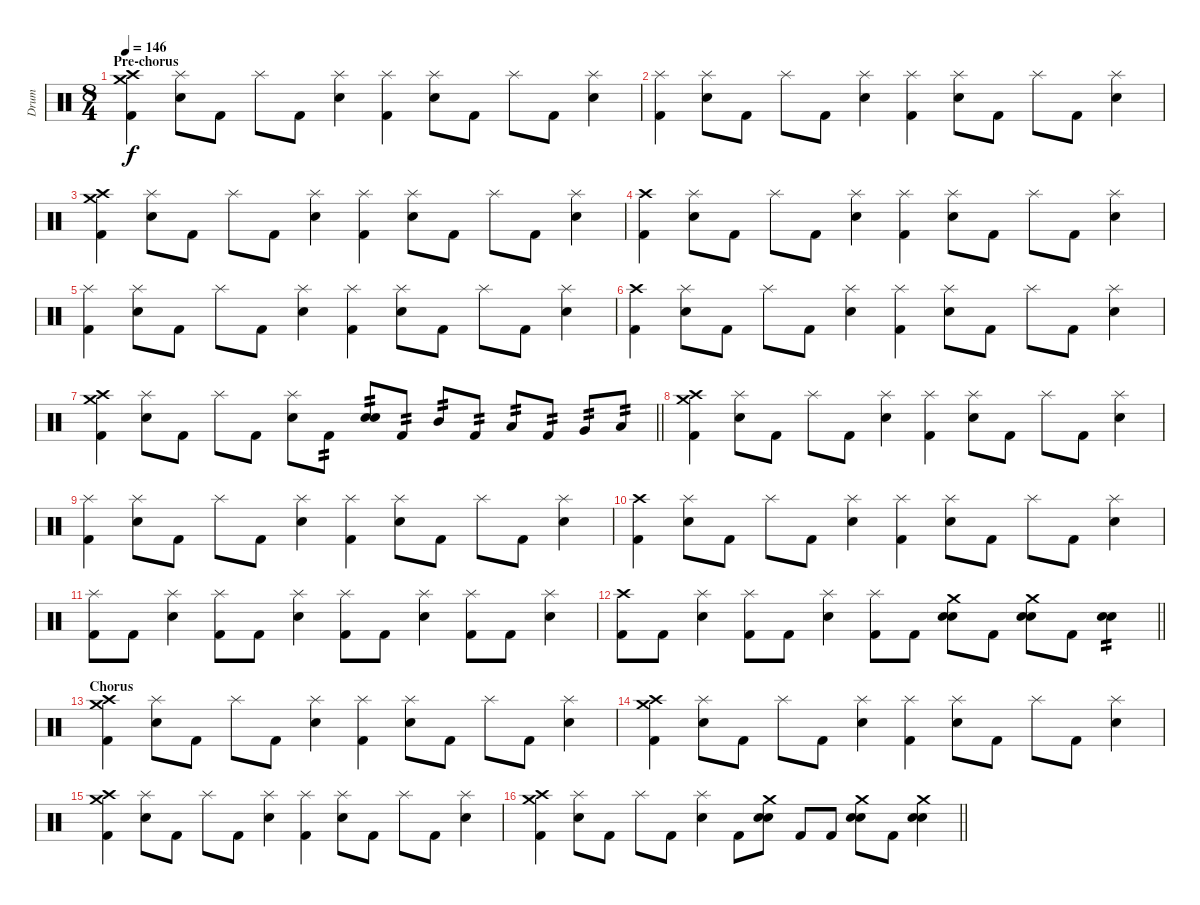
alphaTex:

\track ("Drum" "Drum") {instrument percussion}
\staff {score}
\articulation defaults
\ts (8 4)
\section ("" "Pre-chorus")
\tempo 146
\clef neutral
\ks c
("Kick (hit) 2" "Crash high (hit)" "Crash medium (hit)").4{dy f} ("Splash (hit)" "Electric Snare (hit)").8 "Kick (hit) 2".8 "Splash (hit)".8 "Kick (hit) 2".8 ("Splash (hit)" "Electric Snare (hit)").4 ("Splash (hit)" "Kick (hit) 2").4 ("Splash (hit)" "Electric Snare (hit)").8 "Kick (hit) 2".8 "Splash (hit)".8 "Kick (hit) 2".8 ("Splash (hit)" "Electric Snare (hit)").4 |
("Splash (hit)" "Kick (hit) 2").4 ("Splash (hit)" "Electric Snare (hit)").8 "Kick (hit) 2".8 "Splash (hit)".8 "Kick (hit) 2".8 ("Splash (hit)" "Electric Snare (hit)").4 ("Splash (hit)" "Kick (hit) 2").4 ("Splash (hit)" "Electric Snare (hit)").8 "Kick (hit) 2".8 "Splash (hit)".8 "Kick (hit) 2".8 ("Splash (hit)" "Electric Snare (hit)").4 |
("Kick (hit) 2" "Crash high (hit)" "Crash medium (hit)").4 ("Splash (hit)" "Electric Snare (hit)").8 "Kick (hit) 2".8 "Splash (hit)".8 "Kick (hit) 2".8 ("Splash (hit)" "Electric Snare (hit)").4 ("Splash (hit)" "Kick (hit) 2").4 ("Splash (hit)" "Electric Snare (hit)").8 "Kick (hit) 2".8 "Splash (hit)".8 "Kick (hit) 2".8 ("Splash (hit)" "Electric Snare (hit)").4 |
("Kick (hit) 2" "Crash high (hit)").4 ("Splash (hit)" "Electric Snare (hit)").8 "Kick (hit) 2".8 "Splash (hit)".8 "Kick (hit) 2".8 ("Splash (hit)" "Electric Snare (hit)").4 ("Splash (hit)" "Kick (hit) 2").4 ("Splash (hit)" "Electric Snare (hit)").8 "Kick (hit) 2".8 "Splash (hit)".8 "Kick (hit) 2".8 ("Splash (hit)" "Electric Snare (hit)").4 |
("Splash (hit)" "Kick (hit) 2").4 ("Splash (hit)" "Electric Snare (hit)").8 "Kick (hit) 2".8 "Splash (hit)".8 "Kick (hit) 2".8 ("Splash (hit)" "Electric Snare (hit)").4 ("Splash (hit)" "Kick (hit) 2").4 ("Splash (hit)" "Electric Snare (hit)").8 "Kick (hit) 2".8 "Splash (hit)".8 "Kick (hit) 2".8 ("Splash (hit)" "Electric Snare (hit)").4 |
("Kick (hit) 2" "Crash high (hit)").4 ("Splash (hit)" "Electric Snare (hit)").8 "Kick (hit) 2".8 "Splash (hit)".8 "Kick (hit) 2".8 ("Splash (hit)" "Electric Snare (hit)").4 ("Splash (hit)" "Kick (hit) 2").4 ("Splash (hit)" "Electric Snare (hit)").8 "Kick (hit) 2".8 "Splash (hit)".8 "Kick (hit) 2".8 ("Splash (hit)" "Electric Snare (hit)").4 |
\barLineRight lightlight
("Kick (hit) 2" "Crash high (hit)" "Crash medium (hit)").4 ("Splash (hit)" "Electric Snare (hit)").8 "Kick (hit) 2".8 "Splash (hit)".8 "Kick (hit) 2".8 ("Splash (hit)" "Electric Snare (hit)").8 "Kick (hit) 2".8{tp 2} ("Electric Snare (hit)" "Electric Snare (hit)").8{tp 2} "Kick (hit) 2".8{tp 2} "Mid Tom (hit)".8{tp 2} "Kick (hit) 2".8{tp 2} "Low Tom (hit)".8{tp 2} "Kick (hit) 2".8{tp 2} "Very Low Tom (hit)".8{tp 2} "Low Floor Tom (hit)".8{tp 2} |
\section ("" "")
("Kick (hit) 2" "Crash high (hit)" "Crash medium (hit)").4 ("Splash (hit)" "Electric Snare (hit)").8 "Kick (hit) 2".8 "Splash (hit)".8 "Kick (hit) 2".8 ("Splash (hit)" "Electric Snare (hit)").4 ("Splash (hit)" "Kick (hit) 2").4 ("Splash (hit)" "Electric Snare (hit)").8 "Kick (hit) 2".8 "Splash (hit)".8 "Kick (hit) 2".8 ("Splash (hit)" "Electric Snare (hit)").4 |
("Splash (hit)" "Kick (hit) 2").4 ("Splash (hit)" "Electric Snare (hit)").8 "Kick (hit) 2".8 "Splash (hit)".8 "Kick (hit) 2".8 ("Splash (hit)" "Electric Snare (hit)").4 ("Splash (hit)" "Kick (hit) 2").4 ("Splash (hit)" "Electric Snare (hit)").8 "Kick (hit) 2".8 "Splash (hit)".8 "Kick (hit) 2".8 ("Splash (hit)" "Electric Snare (hit)").4 |
("Kick (hit) 2" "Crash high (hit)").4 ("Splash (hit)" "Electric Snare (hit)").8 "Kick (hit) 2".8 "Splash (hit)".8 "Kick (hit) 2".8 ("Splash (hit)" "Electric Snare (hit)").4 ("Splash (hit)" "Kick (hit) 2").4 ("Splash (hit)" "Electric Snare (hit)").8 "Kick (hit) 2".8 "Splash (hit)".8 "Kick (hit) 2".8 ("Splash (hit)" "Electric Snare (hit)").4 |
("Splash (hit)" "Kick (hit) 2").8 "Kick (hit) 2".8 ("Splash (hit)" "Electric Snare (hit)").4 ("Splash (hit)" "Kick (hit) 2").8 "Kick (hit) 2".8 ("Splash (hit)" "Electric Snare (hit)").4 ("Splash (hit)" "Kick (hit) 2").8 "Kick (hit) 2".8 ("Splash (hit)" "Electric Snare (hit)").4 ("Splash (hit)" "Kick (hit) 2").8 "Kick (hit) 2".8 ("Splash (hit)" "Electric Snare (hit)").4 |
\barLineRight lightlight
("Kick (hit) 2" "Crash high (hit)").8 "Kick (hit) 2".8 ("Splash (hit)" "Electric Snare (hit)").4 ("Splash (hit)" "Kick (hit) 2").8 "Kick (hit) 2".8 ("Splash (hit)" "Electric Snare (hit)").4 ("Splash (hit)" "Kick (hit) 2").8 "Kick (hit) 2".8 ("Electric Snare (hit)" "Electric Snare (hit)" "Crash medium (hit)").8 "Kick (hit) 2".8 ("Electric Snare (hit)" "Electric Snare (hit)" "Crash medium (hit)").8 "Kick (hit) 2".8 ("Electric Snare (hit)" "Electric Snare (hit)").4{tp 2} |
\section ("" "Chorus")
("Kick (hit) 2" "Crash high (hit)" "Crash medium (hit)").4 ("Splash (hit)" "Electric Snare (hit)").8 "Kick (hit) 2".8 "Splash (hit)".8 "Kick (hit) 2".8 ("Splash (hit)" "Electric Snare (hit)").4 ("Splash (hit)" "Kick (hit) 2").4 ("Splash (hit)" "Electric Snare (hit)").8 "Kick (hit) 2".8 "Splash (hit)".8 "Kick (hit) 2".8 ("Splash (hit)" "Electric Snare (hit)").4 |
("Kick (hit) 2" "Crash high (hit)" "Crash medium (hit)").4 ("Splash (hit)" "Electric Snare (hit)").8 "Kick (hit) 2".8 "Splash (hit)".8 "Kick (hit) 2".8 ("Splash (hit)" "Electric Snare (hit)").4 ("Splash (hit)" "Kick (hit) 2").4 ("Splash (hit)" "Electric Snare (hit)").8 "Kick (hit) 2".8 "Splash (hit)".8 "Kick (hit) 2".8 ("Splash (hit)" "Electric Snare (hit)").4 |
("Kick (hit) 2" "Crash high (hit)" "Crash medium (hit)").4 ("Splash (hit)" "Electric Snare (hit)").8 "Kick (hit) 2".8 "Splash (hit)".8 "Kick (hit) 2".8 ("Splash (hit)" "Electric Snare (hit)").4 ("Splash (hit)" "Kick (hit) 2").4 ("Splash (hit)" "Electric Snare (hit)").8 "Kick (hit) 2".8 "Splash (hit)".8 "Kick (hit) 2".8 ("Splash (hit)" "Electric Snare (hit)").4 |
\barLineRight lightlight
("Kick (hit) 2" "Crash high (hit)" "Crash medium (hit)").4 ("Splash (hit)" "Electric Snare (hit)").8 "Kick (hit) 2".8 "Splash (hit)".8 "Kick (hit) 2".8 ("Splash (hit)" "Electric Snare (hit)").4 "Kick (hit) 2".8 ("Electric Snare (hit)" "Electric Snare (hit)" "Crash medium (hit)").8 "Kick (hit) 2".8 "Kick (hit) 2".8 ("Electric Snare (hit)" "Electric Snare (hit)" "Crash medium (hit)").8 "Kick (hit) 2".8 ("Electric Snare (hit)" "Electric Snare (hit)" "Crash medium (hit)").4
